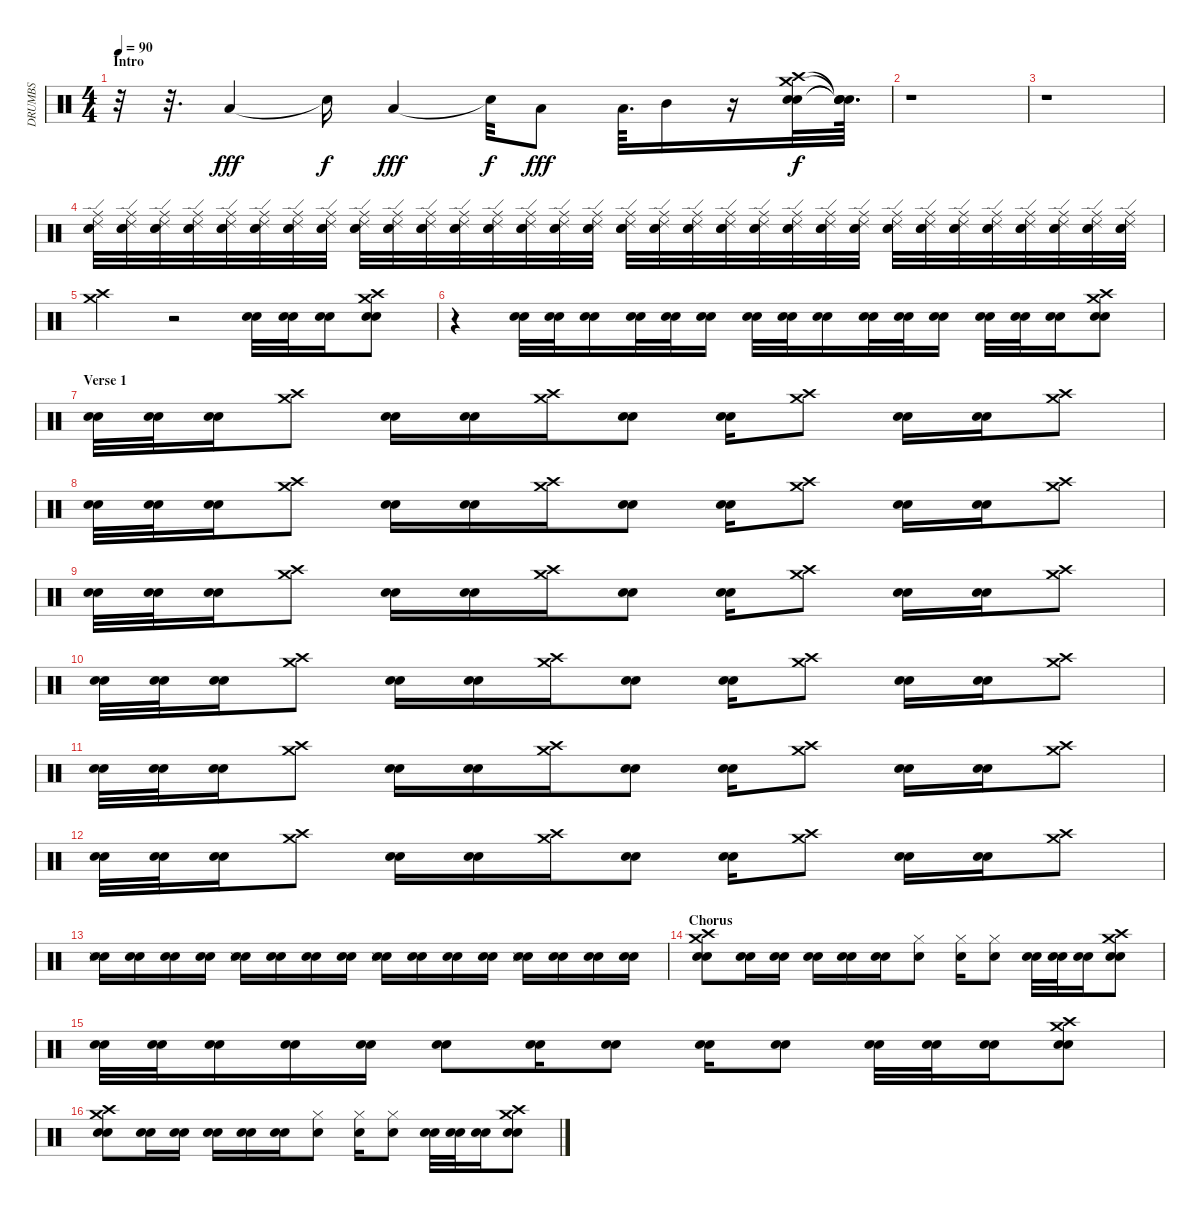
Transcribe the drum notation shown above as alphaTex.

\track ("DRUMBS" "DRUMBS") {instrument percussion}
\staff {score}
\articulation defaults
\ts (4 4)
\section ("" "Intro")
\tempo 90
\clef neutral
\ks c
r.32{dy fff} r.32{d} "Low Tom (hit)".4 "Snare (hit)"{t}.16{dy f} "Low Tom (hit)".4{dy fff} "Snare (hit)"{t}.32{dy f} "Low Tom (hit)".8{dy fff} "Low Tom (hit)".64{d} "Mid Tom (hit)".16 r.16 ("Crash high (hit)" "Crash medium (hit)" "Electric Snare (hit)" "Snare (hit) 2").32{dy f} ("Snare (hit)"{t} "Snare (hit)"{t} "Snare (hit)"{t} "Snare (hit)"{t}).64{d} |
r.1 |
r.1 |
("Snare (hit) 2" "Electric Snare (hit)" "Ride (edge) 2" "Ride (middle)").32{balance 8} ("Snare (hit) 2" "Electric Snare (hit)" "Ride (edge) 2" "Ride (middle)").32 ("Snare (hit) 2" "Electric Snare (hit)" "Ride (edge) 2" "Ride (middle)").32 ("Snare (hit) 2" "Electric Snare (hit)" "Ride (edge) 2" "Ride (middle)").32 ("Snare (hit) 2" "Electric Snare (hit)" "Ride (edge) 2" "Ride (middle)").32 ("Snare (hit) 2" "Electric Snare (hit)" "Ride (edge) 2" "Ride (middle)").32 ("Snare (hit) 2" "Electric Snare (hit)" "Ride (edge) 2" "Ride (middle)").32 ("Snare (hit) 2" "Electric Snare (hit)" "Ride (edge) 2" "Ride (middle)").32 ("Snare (hit) 2" "Electric Snare (hit)" "Ride (edge) 2" "Ride (middle)").32 ("Snare (hit) 2" "Electric Snare (hit)" "Ride (edge) 2" "Ride (middle)").32 ("Snare (hit) 2" "Electric Snare (hit)" "Ride (edge) 2" "Ride (middle)").32 ("Snare (hit) 2" "Electric Snare (hit)" "Ride (edge) 2" "Ride (middle)").32 ("Snare (hit) 2" "Electric Snare (hit)" "Ride (edge) 2" "Ride (middle)").32 ("Snare (hit) 2" "Electric Snare (hit)" "Ride (edge) 2" "Ride (middle)").32 ("Snare (hit) 2" "Electric Snare (hit)" "Ride (edge) 2" "Ride (middle)").32 ("Snare (hit) 2" "Electric Snare (hit)" "Ride (edge) 2" "Ride (middle)").32 ("Snare (hit) 2" "Electric Snare (hit)" "Ride (edge) 2" "Ride (middle)").32 ("Snare (hit) 2" "Electric Snare (hit)" "Ride (edge) 2" "Ride (middle)").32 ("Snare (hit) 2" "Electric Snare (hit)" "Ride (edge) 2" "Ride (middle)").32 ("Snare (hit) 2" "Electric Snare (hit)" "Ride (edge) 2" "Ride (middle)").32 ("Snare (hit) 2" "Electric Snare (hit)" "Ride (edge) 2" "Ride (middle)").32 ("Snare (hit) 2" "Electric Snare (hit)" "Ride (edge) 2" "Ride (middle)").32 ("Snare (hit) 2" "Electric Snare (hit)" "Ride (edge) 2" "Ride (middle)").32 ("Snare (hit) 2" "Electric Snare (hit)" "Ride (edge) 2" "Ride (middle)").32 ("Snare (hit) 2" "Electric Snare (hit)" "Ride (edge) 2" "Ride (middle)").32 ("Snare (hit) 2" "Electric Snare (hit)" "Ride (edge) 2" "Ride (middle)").32 ("Snare (hit) 2" "Electric Snare (hit)" "Ride (edge) 2" "Ride (middle)").32 ("Snare (hit) 2" "Electric Snare (hit)" "Ride (edge) 2" "Ride (middle)").32 ("Snare (hit) 2" "Electric Snare (hit)" "Ride (edge) 2" "Ride (middle)").32 ("Snare (hit) 2" "Electric Snare (hit)" "Ride (edge) 2" "Ride (middle)").32 ("Snare (hit) 2" "Electric Snare (hit)" "Ride (edge) 2" "Ride (middle)").32 ("Snare (hit) 2" "Electric Snare (hit)" "Ride (edge) 2" "Ride (middle)").32 |
("Crash high (hit)" "Crash medium (hit)").4 r.2 ("Electric Snare (hit)" "Snare (hit) 2").32 ("Electric Snare (hit)" "Snare (hit) 2").32 ("Electric Snare (hit)" "Snare (hit) 2").16 ("Electric Snare (hit)" "Snare (hit) 2" "Crash high (hit)" "Crash medium (hit)").8 |
r.4 ("Electric Snare (hit)" "Snare (hit) 2").32 ("Electric Snare (hit)" "Snare (hit) 2").32 ("Electric Snare (hit)" "Snare (hit) 2").16 ("Electric Snare (hit)" "Snare (hit) 2").32 ("Electric Snare (hit)" "Snare (hit) 2").32 ("Electric Snare (hit)" "Snare (hit) 2").16 ("Electric Snare (hit)" "Snare (hit) 2").32 ("Electric Snare (hit)" "Snare (hit) 2").32 ("Electric Snare (hit)" "Snare (hit) 2").16 ("Electric Snare (hit)" "Snare (hit) 2").32 ("Electric Snare (hit)" "Snare (hit) 2").32 ("Electric Snare (hit)" "Snare (hit) 2").16 ("Snare (hit) 2" "Electric Snare (hit)").32 ("Electric Snare (hit)" "Snare (hit) 2").32 ("Electric Snare (hit)" "Snare (hit) 2").16 ("Snare (hit) 2" "Electric Snare (hit)" "Crash medium (hit)" "Crash high (hit)").8 |
\section ("" "Verse 1")
("Electric Snare (hit)" "Snare (hit) 2").32 ("Electric Snare (hit)" "Snare (hit) 2").32 ("Electric Snare (hit)" "Snare (hit) 2").16 ("Crash medium (hit)" "Crash high (hit)").8 ("Electric Snare (hit)" "Snare (hit) 2").16 ("Electric Snare (hit)" "Snare (hit) 2").16 ("Crash medium (hit)" "Crash high (hit)").16 ("Electric Snare (hit)" "Snare (hit) 2").8 ("Electric Snare (hit)" "Snare (hit) 2").16 ("Crash medium (hit)" "Crash high (hit)").8 ("Electric Snare (hit)" "Snare (hit) 2").16 ("Electric Snare (hit)" "Snare (hit) 2").16 ("Crash medium (hit)" "Crash high (hit)").8 |
("Electric Snare (hit)" "Snare (hit) 2").32 ("Electric Snare (hit)" "Snare (hit) 2").32 ("Electric Snare (hit)" "Snare (hit) 2").16 ("Crash medium (hit)" "Crash high (hit)").8 ("Electric Snare (hit)" "Snare (hit) 2").16 ("Electric Snare (hit)" "Snare (hit) 2").16 ("Crash medium (hit)" "Crash high (hit)").16 ("Electric Snare (hit)" "Snare (hit) 2").8 ("Electric Snare (hit)" "Snare (hit) 2").16 ("Crash medium (hit)" "Crash high (hit)").8 ("Electric Snare (hit)" "Snare (hit) 2").16 ("Electric Snare (hit)" "Snare (hit) 2").16 ("Crash medium (hit)" "Crash high (hit)").8 |
("Electric Snare (hit)" "Snare (hit) 2").32 ("Electric Snare (hit)" "Snare (hit) 2").32 ("Electric Snare (hit)" "Snare (hit) 2").16 ("Crash medium (hit)" "Crash high (hit)").8 ("Electric Snare (hit)" "Snare (hit) 2").16 ("Electric Snare (hit)" "Snare (hit) 2").16 ("Crash medium (hit)" "Crash high (hit)").16 ("Electric Snare (hit)" "Snare (hit) 2").8 ("Electric Snare (hit)" "Snare (hit) 2").16 ("Crash medium (hit)" "Crash high (hit)").8 ("Electric Snare (hit)" "Snare (hit) 2").16 ("Electric Snare (hit)" "Snare (hit) 2").16 ("Crash medium (hit)" "Crash high (hit)").8 |
("Electric Snare (hit)" "Snare (hit) 2").32 ("Electric Snare (hit)" "Snare (hit) 2").32 ("Electric Snare (hit)" "Snare (hit) 2").16 ("Crash medium (hit)" "Crash high (hit)").8 ("Electric Snare (hit)" "Snare (hit) 2").16 ("Electric Snare (hit)" "Snare (hit) 2").16 ("Crash medium (hit)" "Crash high (hit)").16 ("Electric Snare (hit)" "Snare (hit) 2").8 ("Electric Snare (hit)" "Snare (hit) 2").16 ("Crash medium (hit)" "Crash high (hit)").8 ("Electric Snare (hit)" "Snare (hit) 2").16 ("Electric Snare (hit)" "Snare (hit) 2").16 ("Crash medium (hit)" "Crash high (hit)").8 |
("Electric Snare (hit)" "Snare (hit) 2").32 ("Electric Snare (hit)" "Snare (hit) 2").32 ("Electric Snare (hit)" "Snare (hit) 2").16 ("Crash medium (hit)" "Crash high (hit)").8 ("Electric Snare (hit)" "Snare (hit) 2").16 ("Electric Snare (hit)" "Snare (hit) 2").16 ("Crash medium (hit)" "Crash high (hit)").16 ("Electric Snare (hit)" "Snare (hit) 2").8 ("Electric Snare (hit)" "Snare (hit) 2").16 ("Crash medium (hit)" "Crash high (hit)").8 ("Electric Snare (hit)" "Snare (hit) 2").16 ("Electric Snare (hit)" "Snare (hit) 2").16 ("Crash medium (hit)" "Crash high (hit)").8 |
("Electric Snare (hit)" "Snare (hit) 2").32 ("Electric Snare (hit)" "Snare (hit) 2").32 ("Electric Snare (hit)" "Snare (hit) 2").16 ("Crash medium (hit)" "Crash high (hit)").8 ("Electric Snare (hit)" "Snare (hit) 2").16 ("Electric Snare (hit)" "Snare (hit) 2").16 ("Crash medium (hit)" "Crash high (hit)").16 ("Electric Snare (hit)" "Snare (hit) 2").8 ("Electric Snare (hit)" "Snare (hit) 2").16 ("Crash medium (hit)" "Crash high (hit)").8 ("Electric Snare (hit)" "Snare (hit) 2").16 ("Electric Snare (hit)" "Snare (hit) 2").16 ("Crash medium (hit)" "Crash high (hit)").8 |
("Electric Snare (hit)" "Snare (side stick) 3" "Snare (hit) 2").16 ("Electric Snare (hit)" "Snare (hit) 2").16 ("Electric Snare (hit)" "Snare (hit) 2").16 ("Electric Snare (hit)" "Snare (hit) 2").16 ("Electric Snare (hit)" "Snare (side stick) 3" "Snare (hit) 2").16 ("Electric Snare (hit)" "Snare (hit) 2").16 ("Electric Snare (hit)" "Snare (hit) 2").16 ("Electric Snare (hit)" "Snare (hit) 2").16 ("Electric Snare (hit)" "Snare (side stick) 3" "Snare (hit) 2").16 ("Electric Snare (hit)" "Snare (hit) 2").16 ("Electric Snare (hit)" "Snare (hit) 2").16 ("Electric Snare (hit)" "Snare (hit) 2").16 ("Electric Snare (hit)" "Snare (side stick) 3" "Snare (hit) 2").16 ("Electric Snare (hit)" "Snare (hit) 2").16 ("Electric Snare (hit)" "Snare (hit) 2").16 ("Electric Snare (hit)" "Snare (hit) 2").16 |
\section ("" "Chorus")
("Electric Snare (hit)" "Snare (hit) 2" "Crash medium (hit)" "Crash high (hit)").8 ("Electric Snare (hit)" "Snare (hit) 2").16 ("Electric Snare (hit)" "Snare (hit) 2").16 ("Electric Snare (hit)" "Snare (hit) 2").16 ("Electric Snare (hit)" "Snare (hit) 2").16 ("Electric Snare (hit)" "Snare (hit) 2").16 ("Snare (hit) 2" "Hi-Hat (closed)").8 ("Snare (hit) 2" "Hi-Hat (closed)").16 ("Snare (hit) 2" "Hi-Hat (closed)").8 ("Electric Snare (hit)" "Snare (hit) 2").32 ("Electric Snare (hit)" "Snare (hit) 2").32 ("Electric Snare (hit)" "Snare (hit) 2").16 ("Electric Snare (hit)" "Snare (hit) 2" "Crash medium (hit)" "Crash high (hit)").8 |
("Electric Snare (hit)" "Snare (hit) 2").32 ("Electric Snare (hit)" "Snare (hit) 2").32 ("Electric Snare (hit)" "Snare (hit) 2").16 ("Electric Snare (hit)" "Snare (hit) 2").16 ("Electric Snare (hit)" "Snare (hit) 2").16 ("Electric Snare (hit)" "Snare (hit) 2").8 ("Electric Snare (hit)" "Snare (hit) 2").16 ("Electric Snare (hit)" "Snare (hit) 2").8 ("Electric Snare (hit)" "Snare (hit) 2").16 ("Electric Snare (hit)" "Snare (hit) 2").8 ("Electric Snare (hit)" "Snare (hit) 2").32 ("Electric Snare (hit)" "Snare (hit) 2").32 ("Electric Snare (hit)" "Snare (hit) 2").16 ("Electric Snare (hit)" "Snare (hit) 2" "Crash medium (hit)" "Crash high (hit)").8 |
("Electric Snare (hit)" "Snare (hit) 2" "Crash medium (hit)" "Crash high (hit)").8 ("Electric Snare (hit)" "Snare (hit) 2").16 ("Electric Snare (hit)" "Snare (hit) 2").16 ("Electric Snare (hit)" "Snare (hit) 2").16 ("Electric Snare (hit)" "Snare (hit) 2").16 ("Electric Snare (hit)" "Snare (hit) 2").16 ("Snare (hit) 2" "Hi-Hat (closed)").8 ("Snare (hit) 2" "Hi-Hat (closed)").16 ("Snare (hit) 2" "Hi-Hat (closed)").8 ("Electric Snare (hit)" "Snare (hit) 2").32 ("Electric Snare (hit)" "Snare (hit) 2").32 ("Electric Snare (hit)" "Snare (hit) 2").16 ("Electric Snare (hit)" "Snare (hit) 2" "Crash medium (hit)" "Crash high (hit)").8
